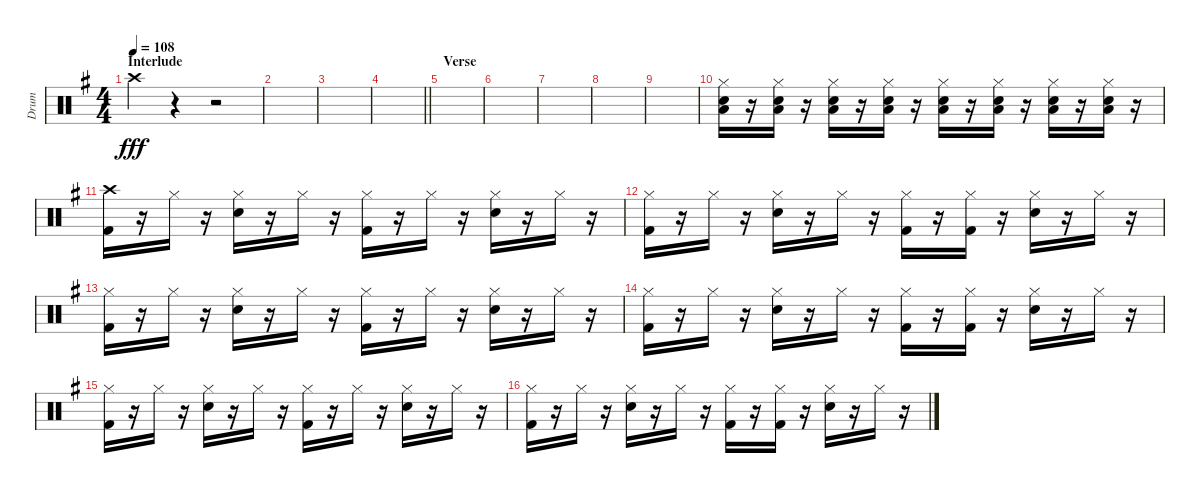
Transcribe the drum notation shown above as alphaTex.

\track ("Drum" "Drum") {instrument percussion}
\staff {score}
\articulation defaults
\ts (4 4)
\section ("" "Interlude")
\tempo 108
\clef neutral
\ks g "Crash high (hit)".4{dy fff}
r.4 r.2 |
|
|
\barLineRight lightlight
|
\section ("" "Verse")
|
|
|
|
|
("Hi-Hat (closed)" "Electric Snare (hit)" "Low Tom (hit)").16{volume 13} r.16 ("Hi-Hat (closed)" "Electric Snare (hit)" "Low Tom (hit)").16 r.16 ("Hi-Hat (closed)" "Electric Snare (hit)" "Low Tom (hit)").16 r.16 ("Hi-Hat (closed)" "Electric Snare (hit)" "Low Tom (hit)").16 r.16 ("Hi-Hat (closed)" "Electric Snare (hit)" "Low Tom (hit)").16 r.16 ("Hi-Hat (closed)" "Electric Snare (hit)" "Low Tom (hit)").16 r.16 ("Hi-Hat (closed)" "Electric Snare (hit)" "Low Tom (hit)").16 r.16 ("Hi-Hat (closed)" "Electric Snare (hit)" "Low Tom (hit)").16 r.16 |
("Crash high (hit)" "Kick (hit) 2").16 r.16 "Hi-Hat (closed)".16 r.16 ("Hi-Hat (closed)" "Electric Snare (hit)").16 r.16 "Hi-Hat (closed)".16 r.16 ("Hi-Hat (closed)" "Kick (hit) 2").16 r.16 "Hi-Hat (closed)".16 r.16 ("Hi-Hat (closed)" "Electric Snare (hit)").16 r.16 "Hi-Hat (closed)".16 r.16 |
("Hi-Hat (closed)" "Kick (hit) 2").16 r.16 "Hi-Hat (closed)".16 r.16 ("Hi-Hat (closed)" "Electric Snare (hit)").16 r.16 "Hi-Hat (closed)".16 r.16 ("Hi-Hat (closed)" "Kick (hit) 2").16 r.16 ("Hi-Hat (closed)" "Kick (hit) 2").16 r.16 ("Hi-Hat (closed)" "Electric Snare (hit)").16 r.16 "Hi-Hat (closed)".16 r.16 |
("Hi-Hat (closed)" "Kick (hit) 2").16 r.16 "Hi-Hat (closed)".16 r.16 ("Hi-Hat (closed)" "Electric Snare (hit)").16 r.16 "Hi-Hat (closed)".16 r.16 ("Hi-Hat (closed)" "Kick (hit) 2").16 r.16 "Hi-Hat (closed)".16 r.16 ("Hi-Hat (closed)" "Electric Snare (hit)").16 r.16 "Hi-Hat (closed)".16 r.16 |
("Hi-Hat (closed)" "Kick (hit) 2").16 r.16 "Hi-Hat (closed)".16 r.16 ("Hi-Hat (closed)" "Electric Snare (hit)").16 r.16 "Hi-Hat (closed)".16 r.16 ("Hi-Hat (closed)" "Kick (hit) 2").16 r.16 ("Hi-Hat (closed)" "Kick (hit) 2").16 r.16 ("Hi-Hat (closed)" "Electric Snare (hit)").16 r.16 "Hi-Hat (closed)".16 r.16 |
("Hi-Hat (closed)" "Kick (hit) 2").16 r.16 "Hi-Hat (closed)".16 r.16 ("Hi-Hat (closed)" "Electric Snare (hit)").16 r.16 "Hi-Hat (closed)".16 r.16 ("Hi-Hat (closed)" "Kick (hit) 2").16 r.16 "Hi-Hat (closed)".16 r.16 ("Hi-Hat (closed)" "Electric Snare (hit)").16 r.16 "Hi-Hat (closed)".16 r.16 |
("Hi-Hat (closed)" "Kick (hit) 2").16 r.16 "Hi-Hat (closed)".16 r.16 ("Hi-Hat (closed)" "Electric Snare (hit)").16 r.16 "Hi-Hat (closed)".16 r.16 ("Hi-Hat (closed)" "Kick (hit) 2").16 r.16 ("Hi-Hat (closed)" "Kick (hit) 2").16 r.16 ("Hi-Hat (closed)" "Electric Snare (hit)").16 r.16 "Hi-Hat (closed)".16 r.16
